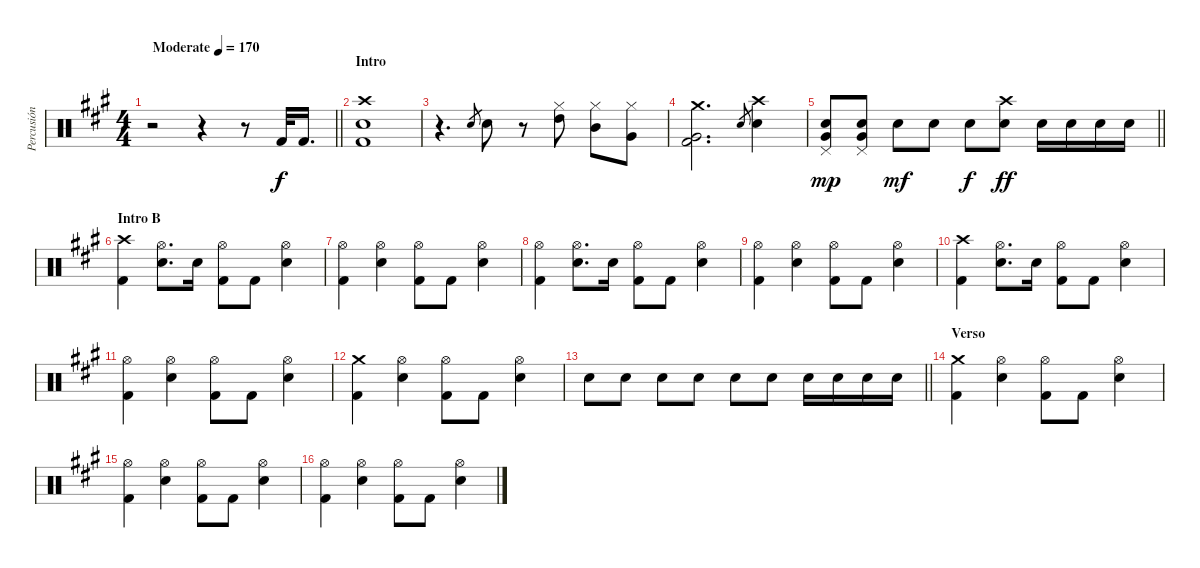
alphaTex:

\track ("Percusión" "Percusión") {instrument percussion}
\staff {score}
\articulation defaults
\ts (4 4)
\tempo (170 "Moderate")
\clef neutral
\barLineRight lightlight
\ks a
r.2{dy f} r.4 r.8 "Kick (hit) 2".32 "Kick (hit) 2".16{d} |
\section ("" "Intro")
("Crash high (hit)" "Electric Snare (hit)" "Kick (hit) 2").1 |
r.4{d} "Electric Snare (hit)".8{gr} "Electric Snare (hit)".8 r.8 ("Hi-Hat (closed)" "High Tom (hit)").8 ("Hi-Hat (closed)" "Mid Tom (hit)").8 ("Hi-Hat (closed)" "Very Low Tom (hit)").8 |
("Crash medium (hit)" "Very Low Tom (hit)" "Kick (hit) 2").2{d} "Electric Snare (hit)".8{gr} ("Crash high (hit)" "Electric Snare (hit)").4 |
\barLineRight lightlight
("Pedal Hi-Hat (hit)" "Very Low Tom (hit)" "Electric Snare (hit)").8{dy mp} ("Pedal Hi-Hat (hit)" "Very Low Tom (hit)" "Electric Snare (hit)").8 "Electric Snare (hit)".8{dy mf} "Electric Snare (hit)".8 "Electric Snare (hit)".8{dy f} ("Crash high (hit)" "Electric Snare (hit)").8{dy ff} "Electric Snare (hit)".16 "Electric Snare (hit)".16 "Electric Snare (hit)".16 "Electric Snare (hit)".16 |
\section ("" "Intro B")
("Crash high (hit)" "Kick (hit) 2").4 ("Hi-Hat (open)" "Electric Snare (hit)").8{d} "Electric Snare (hit)".16 ("Hi-Hat (open)" "Kick (hit) 2").8 "Kick (hit) 2".8 ("Hi-Hat (open)" "Electric Snare (hit)").4 |
("Hi-Hat (open)" "Kick (hit) 2").4 ("Hi-Hat (open)" "Electric Snare (hit)").4 ("Hi-Hat (open)" "Kick (hit) 2").8 "Kick (hit) 2".8 ("Hi-Hat (open)" "Electric Snare (hit)").4 |
("Hi-Hat (open)" "Kick (hit) 2").4 ("Hi-Hat (open)" "Electric Snare (hit)").8{d} "Electric Snare (hit)".16 ("Hi-Hat (open)" "Kick (hit) 2").8 "Kick (hit) 2".8 ("Hi-Hat (open)" "Electric Snare (hit)").4 |
("Hi-Hat (open)" "Kick (hit) 2").4 ("Hi-Hat (open)" "Electric Snare (hit)").4 ("Hi-Hat (open)" "Kick (hit) 2").8 "Kick (hit) 2".8 ("Hi-Hat (open)" "Electric Snare (hit)").4 |
("Crash high (hit)" "Kick (hit) 2").4 ("Hi-Hat (open)" "Electric Snare (hit)").8{d} "Electric Snare (hit)".16 ("Hi-Hat (open)" "Kick (hit) 2").8 "Kick (hit) 2".8 ("Hi-Hat (open)" "Electric Snare (hit)").4 |
("Hi-Hat (open)" "Kick (hit) 2").4 ("Hi-Hat (open)" "Electric Snare (hit)").4 ("Hi-Hat (open)" "Kick (hit) 2").8 "Kick (hit) 2".8 ("Hi-Hat (open)" "Electric Snare (hit)").4 |
("Crash medium (hit)" "Kick (hit) 2").4 ("Hi-Hat (open)" "Electric Snare (hit)").4 ("Hi-Hat (open)" "Kick (hit) 2").8 "Kick (hit) 2".8 ("Hi-Hat (open)" "Electric Snare (hit)").4 |
\barLineRight lightlight "Electric Snare (hit)".8 "Electric Snare (hit)".8 "Electric Snare (hit)".8 "Electric Snare (hit)".8 "Electric Snare (hit)".8 "Electric Snare (hit)".8 "Electric Snare (hit)".16 "Electric Snare (hit)".16 "Electric Snare (hit)".16 "Electric Snare (hit)".16
|
\section ("" "Verso ")
("Crash medium (hit)" "Kick (hit) 2").4 ("Hi-Hat (open)" "Electric Snare (hit)").4 ("Hi-Hat (open)" "Kick (hit) 2").8 "Kick (hit) 2".8 ("Hi-Hat (open)" "Electric Snare (hit)").4 |
("Hi-Hat (open)" "Kick (hit) 2").4 ("Hi-Hat (open)" "Electric Snare (hit)").4 ("Hi-Hat (open)" "Kick (hit) 2").8 "Kick (hit) 2".8 ("Hi-Hat (open)" "Electric Snare (hit)").4 |
("Hi-Hat (open)" "Kick (hit) 2").4 ("Hi-Hat (open)" "Electric Snare (hit)").4 ("Hi-Hat (open)" "Kick (hit) 2").8 "Kick (hit) 2".8 ("Hi-Hat (open)" "Electric Snare (hit)").4
